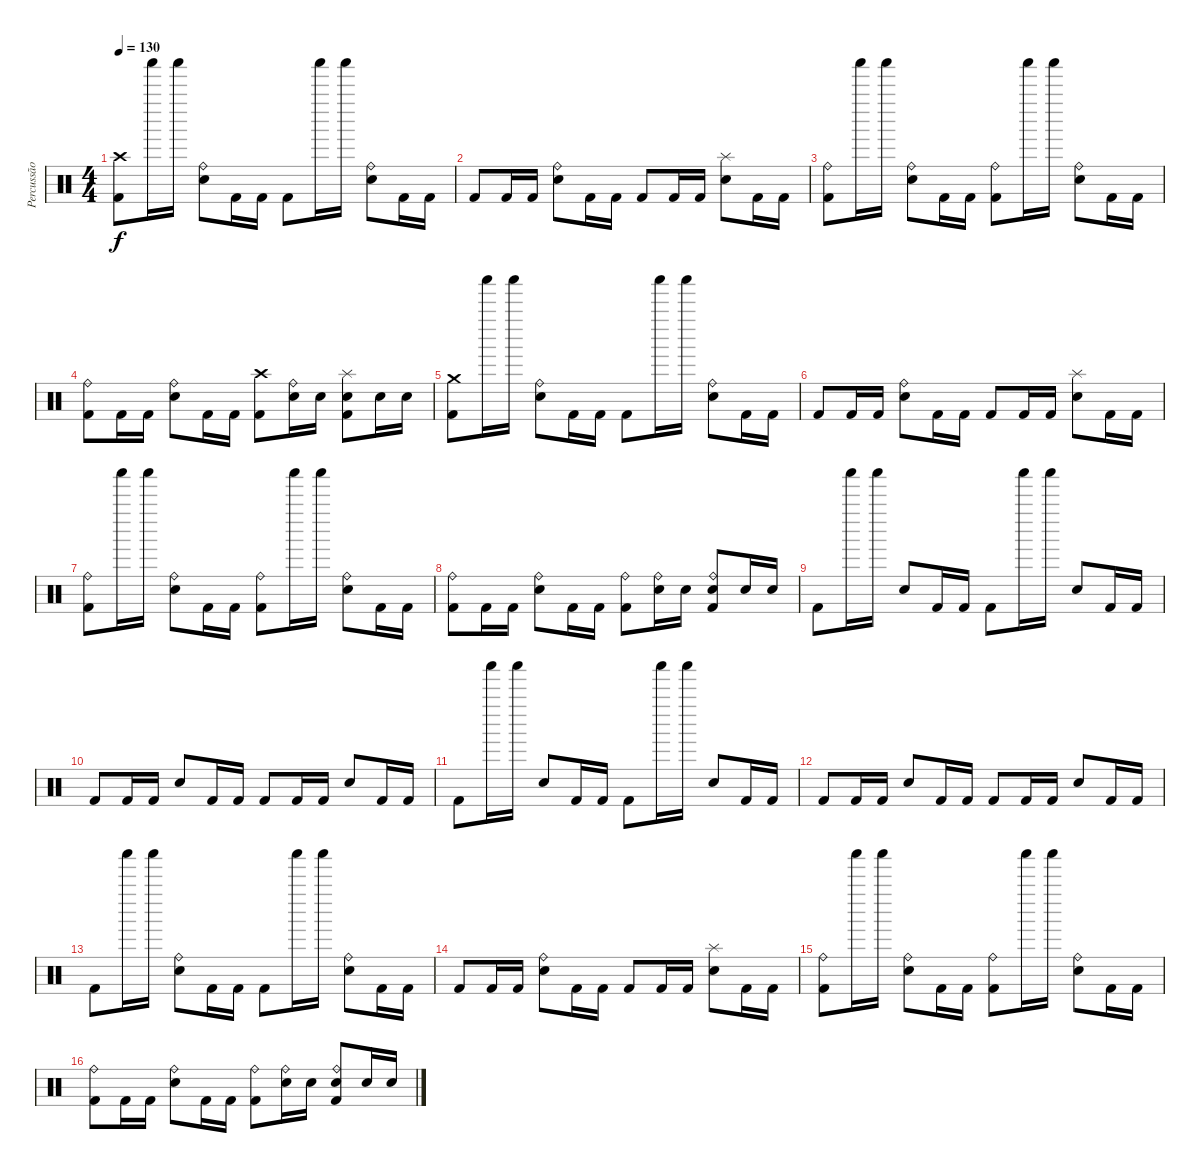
\track ("Percussão" "Percussão") {instrument percussion}
\staff {score}
\articulation defaults
\ts (4 4)
\tempo 130
\clef neutral
\ks c
("Crash high (hit)" "Kick (hit) 2").8{dy f} "Shaker (hit)".16 "Shaker (hit)".16 ("Ride (bell)" "Electric Snare (hit)").8 "Kick (hit) 2".16 "Kick (hit) 2".16 "Kick (hit) 2".8 "Shaker (hit)".16 "Shaker (hit)".16 ("Ride (bell)" "Electric Snare (hit)").8 "Kick (hit) 2".16 "Kick (hit) 2".16 |
"Kick (hit) 2".8 "Kick (hit) 2".16 "Kick (hit) 2".16 ("Ride (bell)" "Electric Snare (hit)").8 "Kick (hit) 2".16 "Kick (hit) 2".16 "Kick (hit) 2".8 "Kick (hit) 2".16 "Kick (hit) 2".16 ("Splash (hit)" "Electric Snare (hit)").8 "Kick (hit) 2".16 "Kick (hit) 2".16 |
("Ride (bell)" "Kick (hit) 2").8 "Shaker (hit)".16 "Shaker (hit)".16 ("Ride (bell)" "Electric Snare (hit)").8 "Kick (hit) 2".16 "Kick (hit) 2".16 ("Ride (bell)" "Kick (hit) 2").8 "Shaker (hit)".16 "Shaker (hit)".16 ("Ride (bell)" "Electric Snare (hit)").8 "Kick (hit) 2".16 "Kick (hit) 2".16 |
("Ride (bell)" "Kick (hit) 2").8 "Kick (hit) 2".16 "Kick (hit) 2".16 ("Ride (bell)" "Electric Snare (hit)").8 "Kick (hit) 2".16 "Kick (hit) 2".16 ("Crash high (hit)" "Kick (hit) 2").8 ("Ride (bell)" "Electric Snare (hit)").16 "Electric Snare (hit)".16 ("Splash (hit)" "Electric Snare (hit)" "Kick (hit) 2").8 "Electric Snare (hit)".16 "Electric Snare (hit)".16 |
("Crash medium (hit)" "Kick (hit) 2").8 "Shaker (hit)".16 "Shaker (hit)".16 ("Ride (bell)" "Electric Snare (hit)").8 "Kick (hit) 2".16 "Kick (hit) 2".16 "Kick (hit) 2".8 "Shaker (hit)".16 "Shaker (hit)".16 ("Ride (bell)" "Electric Snare (hit)").8 "Kick (hit) 2".16 "Kick (hit) 2".16 |
"Kick (hit) 2".8 "Kick (hit) 2".16 "Kick (hit) 2".16 ("Ride (bell)" "Electric Snare (hit)").8 "Kick (hit) 2".16 "Kick (hit) 2".16 "Kick (hit) 2".8 "Kick (hit) 2".16 "Kick (hit) 2".16 ("Splash (hit)" "Electric Snare (hit)").8 "Kick (hit) 2".16 "Kick (hit) 2".16 |
("Ride (bell)" "Kick (hit) 2").8 "Shaker (hit)".16 "Shaker (hit)".16 ("Ride (bell)" "Electric Snare (hit)").8 "Kick (hit) 2".16 "Kick (hit) 2".16 ("Ride (bell)" "Kick (hit) 2").8 "Shaker (hit)".16 "Shaker (hit)".16 ("Ride (bell)" "Electric Snare (hit)").8 "Kick (hit) 2".16 "Kick (hit) 2".16 |
("Ride (bell)" "Kick (hit) 2").8 "Kick (hit) 2".16 "Kick (hit) 2".16 ("Ride (bell)" "Electric Snare (hit)").8 "Kick (hit) 2".16 "Kick (hit) 2".16 ("Ride (bell)" "Kick (hit) 2").8 ("Ride (bell)" "Electric Snare (hit)").16 "Electric Snare (hit)".16 ("Ride (bell)" "Electric Snare (hit)" "Kick (hit) 2").8 "Electric Snare (hit)".16 "Electric Snare (hit)".16 |
"Kick (hit) 2".8 "Shaker (hit)".16 "Shaker (hit)".16 "Electric Snare (hit)".8 "Kick (hit) 2".16 "Kick (hit) 2".16 "Kick (hit) 2".8 "Shaker (hit)".16 "Shaker (hit)".16 "Electric Snare (hit)".8 "Kick (hit) 2".16 "Kick (hit) 2".16 |
"Kick (hit) 2".8 "Kick (hit) 2".16 "Kick (hit) 2".16 "Electric Snare (hit)".8 "Kick (hit) 2".16 "Kick (hit) 2".16 "Kick (hit) 2".8 "Kick (hit) 2".16 "Kick (hit) 2".16 "Electric Snare (hit)".8 "Kick (hit) 2".16 "Kick (hit) 2".16 |
"Kick (hit) 2".8 "Shaker (hit)".16 "Shaker (hit)".16 "Electric Snare (hit)".8 "Kick (hit) 2".16 "Kick (hit) 2".16 "Kick (hit) 2".8 "Shaker (hit)".16 "Shaker (hit)".16 "Electric Snare (hit)".8 "Kick (hit) 2".16 "Kick (hit) 2".16 |
"Kick (hit) 2".8 "Kick (hit) 2".16 "Kick (hit) 2".16 "Electric Snare (hit)".8 "Kick (hit) 2".16 "Kick (hit) 2".16 "Kick (hit) 2".8 "Kick (hit) 2".16 "Kick (hit) 2".16 "Electric Snare (hit)".8 "Kick (hit) 2".16 "Kick (hit) 2".16 |
"Kick (hit) 2".8 "Shaker (hit)".16 "Shaker (hit)".16 ("Ride (bell)" "Electric Snare (hit)").8 "Kick (hit) 2".16 "Kick (hit) 2".16 "Kick (hit) 2".8 "Shaker (hit)".16 "Shaker (hit)".16 ("Ride (bell)" "Electric Snare (hit)").8 "Kick (hit) 2".16 "Kick (hit) 2".16 |
"Kick (hit) 2".8 "Kick (hit) 2".16 "Kick (hit) 2".16 ("Ride (bell)" "Electric Snare (hit)").8 "Kick (hit) 2".16 "Kick (hit) 2".16 "Kick (hit) 2".8 "Kick (hit) 2".16 "Kick (hit) 2".16 ("Splash (hit)" "Electric Snare (hit)").8 "Kick (hit) 2".16 "Kick (hit) 2".16 |
("Ride (bell)" "Kick (hit) 2").8 "Shaker (hit)".16 "Shaker (hit)".16 ("Ride (bell)" "Electric Snare (hit)").8 "Kick (hit) 2".16 "Kick (hit) 2".16 ("Ride (bell)" "Kick (hit) 2").8 "Shaker (hit)".16 "Shaker (hit)".16 ("Ride (bell)" "Electric Snare (hit)").8 "Kick (hit) 2".16 "Kick (hit) 2".16 |
("Ride (bell)" "Kick (hit) 2").8 "Kick (hit) 2".16 "Kick (hit) 2".16 ("Ride (bell)" "Electric Snare (hit)").8 "Kick (hit) 2".16 "Kick (hit) 2".16 ("Ride (bell)" "Kick (hit) 2").8 ("Ride (bell)" "Electric Snare (hit)").16 "Electric Snare (hit)".16 ("Ride (bell)" "Electric Snare (hit)" "Kick (hit) 2").8 "Electric Snare (hit)".16 "Electric Snare (hit)".16
